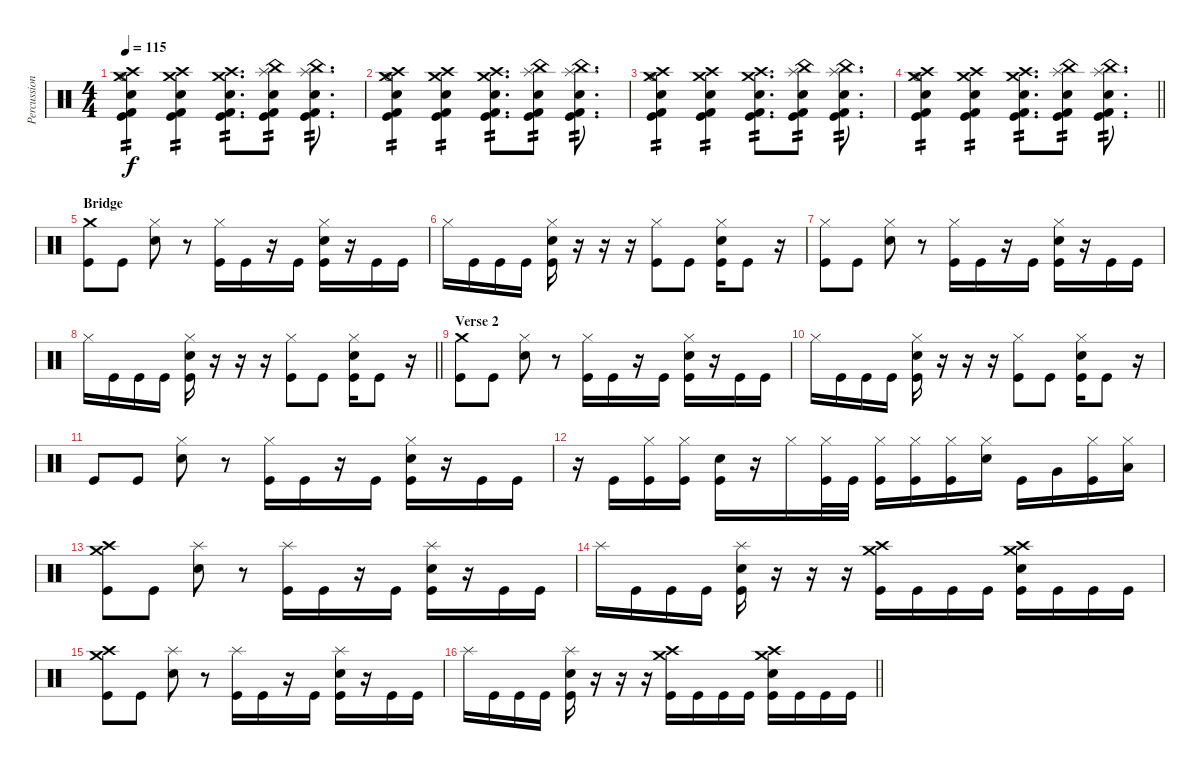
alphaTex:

\track ("Percussion (Approx.)" "Percussion") {instrument percussion}
\staff {score}
\articulation defaults
\ts (4 4)
\tempo 115
\clef neutral
\ks c
("Hi-Hat (open)" "Crash medium (hit)" "Crash high (hit)" "Kick (hit) 2" "Kick (hit)" "Electric Snare (hit)").4{tp 2 dy f} ("Crash medium (hit)" "Crash high (hit)" "Kick (hit) 2" "Kick (hit)" "Electric Snare (hit)").4{tp 2} ("Crash medium (hit)" "Crash high (hit)" "Kick (hit) 2" "Kick (hit)" "Electric Snare (hit)").8{d tp 2} ("China (hit)" "Splash (hit)" "Kick (hit) 2" "Kick (hit)" "Electric Snare (hit)").8{tp 2} ("China (hit)" "Splash (hit)" "Kick (hit) 2" "Kick (hit)" "Electric Snare (hit)").8{d tp 2} |
("Hi-Hat (open)" "Crash medium (hit)" "Crash high (hit)" "Kick (hit) 2" "Kick (hit)" "Electric Snare (hit)").4{tp 2} ("Crash medium (hit)" "Crash high (hit)" "Kick (hit) 2" "Kick (hit)" "Electric Snare (hit)").4{tp 2} ("Crash medium (hit)" "Crash high (hit)" "Kick (hit) 2" "Kick (hit)" "Electric Snare (hit)").8{d tp 2} ("China (hit)" "Splash (hit)" "Kick (hit) 2" "Kick (hit)" "Electric Snare (hit)").8{tp 2} ("China (hit)" "Splash (hit)" "Kick (hit) 2" "Kick (hit)" "Electric Snare (hit)").8{d tp 2} |
("Hi-Hat (open)" "Crash medium (hit)" "Crash high (hit)" "Kick (hit) 2" "Kick (hit)" "Electric Snare (hit)").4{tp 2} ("Crash medium (hit)" "Crash high (hit)" "Kick (hit) 2" "Kick (hit)" "Electric Snare (hit)").4{tp 2} ("Crash medium (hit)" "Crash high (hit)" "Kick (hit) 2" "Kick (hit)" "Electric Snare (hit)").8{d tp 2} ("China (hit)" "Splash (hit)" "Kick (hit) 2" "Kick (hit)" "Electric Snare (hit)").8{tp 2} ("China (hit)" "Splash (hit)" "Kick (hit) 2" "Kick (hit)" "Electric Snare (hit)").8{d tp 2} |
\barLineRight lightlight
("Hi-Hat (open)" "Crash medium (hit)" "Crash high (hit)" "Kick (hit) 2" "Kick (hit)" "Electric Snare (hit)").4{tp 2} ("Crash medium (hit)" "Crash high (hit)" "Kick (hit) 2" "Kick (hit)" "Electric Snare (hit)").4{tp 2} ("Crash medium (hit)" "Crash high (hit)" "Kick (hit) 2" "Kick (hit)" "Electric Snare (hit)").8{d tp 2} ("China (hit)" "Splash (hit)" "Kick (hit) 2" "Kick (hit)" "Electric Snare (hit)").8{tp 2} ("China (hit)" "Splash (hit)" "Kick (hit) 2" "Kick (hit)" "Electric Snare (hit)").8{d tp 2} |
\section ("" "Bridge")
("Crash medium (hit)" "Kick (hit)").8 "Kick (hit)".8 ("Hi-Hat (closed)" "Electric Snare (hit)").8 r.8 ("Hi-Hat (closed)" "Kick (hit)").16 "Kick (hit)".16 r.16 "Kick (hit)".16 ("Hi-Hat (closed)" "Electric Snare (hit)" "Kick (hit)").16 r.16 "Kick (hit)".16 "Kick (hit)".16 |
"Hi-Hat (closed)".16 "Kick (hit)".16 "Kick (hit)".16 "Kick (hit)".16 ("Hi-Hat (closed)" "Electric Snare (hit)" "Kick (hit)").16 r.16 r.16 r.16 ("Hi-Hat (closed)" "Kick (hit)").8 "Kick (hit)".8 ("Hi-Hat (closed)" "Electric Snare (hit)" "Kick (hit)").16 "Kick (hit)".8 r.16 |
("Hi-Hat (closed)" "Kick (hit)").8 "Kick (hit)".8 ("Hi-Hat (closed)" "Electric Snare (hit)").8 r.8 ("Hi-Hat (closed)" "Kick (hit)").16 "Kick (hit)".16 r.16 "Kick (hit)".16 ("Hi-Hat (closed)" "Electric Snare (hit)" "Kick (hit)").16 r.16 "Kick (hit)".16 "Kick (hit)".16 |
\barLineRight lightlight "Hi-Hat (closed)".16 "Kick (hit)".16 "Kick (hit)".16 "Kick (hit)".16
("Hi-Hat (closed)" "Electric Snare (hit)" "Kick (hit)").16 r.16 r.16 r.16 ("Hi-Hat (closed)" "Kick (hit)").8 "Kick (hit)".8 ("Hi-Hat (closed)" "Electric Snare (hit)" "Kick (hit)").16 "Kick (hit)".8 r.16 |
\section ("" "Verse 2")
("Crash medium (hit)" "Kick (hit)").8 "Kick (hit)".8 ("Hi-Hat (closed)" "Electric Snare (hit)").8 r.8 ("Hi-Hat (closed)" "Kick (hit)").16 "Kick (hit)".16 r.16 "Kick (hit)".16 ("Hi-Hat (closed)" "Electric Snare (hit)" "Kick (hit)").16 r.16 "Kick (hit)".16 "Kick (hit)".16 |
"Hi-Hat (closed)".16 "Kick (hit)".16 "Kick (hit)".16 "Kick (hit)".16 ("Hi-Hat (closed)" "Electric Snare (hit)" "Kick (hit)").16 r.16 r.16 r.16 ("Hi-Hat (closed)" "Kick (hit)").8 "Kick (hit)".8 ("Hi-Hat (closed)" "Electric Snare (hit)" "Kick (hit)").16 "Kick (hit)".8 r.16 |
"Kick (hit)".8 "Kick (hit)".8 ("Hi-Hat (closed)" "Electric Snare (hit)").8 r.8 ("Hi-Hat (closed)" "Kick (hit)").16 "Kick (hit)".16 r.16 "Kick (hit)".16 ("Hi-Hat (closed)" "Electric Snare (hit)" "Kick (hit)").16 r.16 "Kick (hit)".16 "Kick (hit)".16 |
r.16 "Kick (hit)".16 ("Hi-Hat (closed)" "Kick (hit)").16 ("Hi-Hat (closed)" "Kick (hit)").16 ("Electric Snare (hit)" "Kick (hit)").16 r.16 "Hi-Hat (closed)".16 ("Hi-Hat (closed)" "Kick (hit)").32 "Kick (hit)".32 ("Hi-Hat (closed)" "Kick (hit)").16 ("Hi-Hat (closed)" "Kick (hit)").16 ("Hi-Hat (closed)" "Kick (hit)").16 ("Hi-Hat (closed)" "Electric Snare (hit)").16 "Kick (hit)".16 "Very Low Tom (hit)".16 ("Hi-Hat (closed)" "Kick (hit)").16 ("Hi-Hat (closed)" "Low Floor Tom (hit)").16 |
("Crash medium (hit)" "Crash high (hit)" "Kick (hit)").8 "Kick (hit)".8 ("Splash (hit)" "Electric Snare (hit)").8 r.8 ("Splash (hit)" "Kick (hit)").16 "Kick (hit)".16 r.16 "Kick (hit)".16 ("Splash (hit)" "Electric Snare (hit)" "Kick (hit)").16 r.16 "Kick (hit)".16 "Kick (hit)".16 |
"Splash (hit)".16 "Kick (hit)".16 "Kick (hit)".16 "Kick (hit)".16 ("Splash (hit)" "Electric Snare (hit)" "Kick (hit)").16 r.16 r.16 r.16 ("Crash medium (hit)" "Crash high (hit)" "Kick (hit)").16 "Kick (hit)".16 "Kick (hit)".16 "Kick (hit)".16 ("Crash medium (hit)" "Crash high (hit)" "Electric Snare (hit)" "Kick (hit)").16 "Kick (hit)".16 "Kick (hit)".16 "Kick (hit)".16 |
("Crash medium (hit)" "Crash high (hit)" "Kick (hit)").8 "Kick (hit)".8 ("Splash (hit)" "Electric Snare (hit)").8 r.8 ("Splash (hit)" "Kick (hit)").16 "Kick (hit)".16 r.16 "Kick (hit)".16 ("Splash (hit)" "Electric Snare (hit)" "Kick (hit)").16 r.16 "Kick (hit)".16 "Kick (hit)".16 |
\barLineRight lightlight "Splash (hit)".16 "Kick (hit)".16 "Kick (hit)".16 "Kick (hit)".16
("Splash (hit)" "Electric Snare (hit)" "Kick (hit)").16 r.16 r.16 r.16 ("Crash medium (hit)" "Crash high (hit)" "Kick (hit)").16 "Kick (hit)".16 "Kick (hit)".16 "Kick (hit)".16 ("Crash medium (hit)" "Crash high (hit)" "Electric Snare (hit)" "Kick (hit)").16 "Kick (hit)".16 "Kick (hit)".16 "Kick (hit)".16
